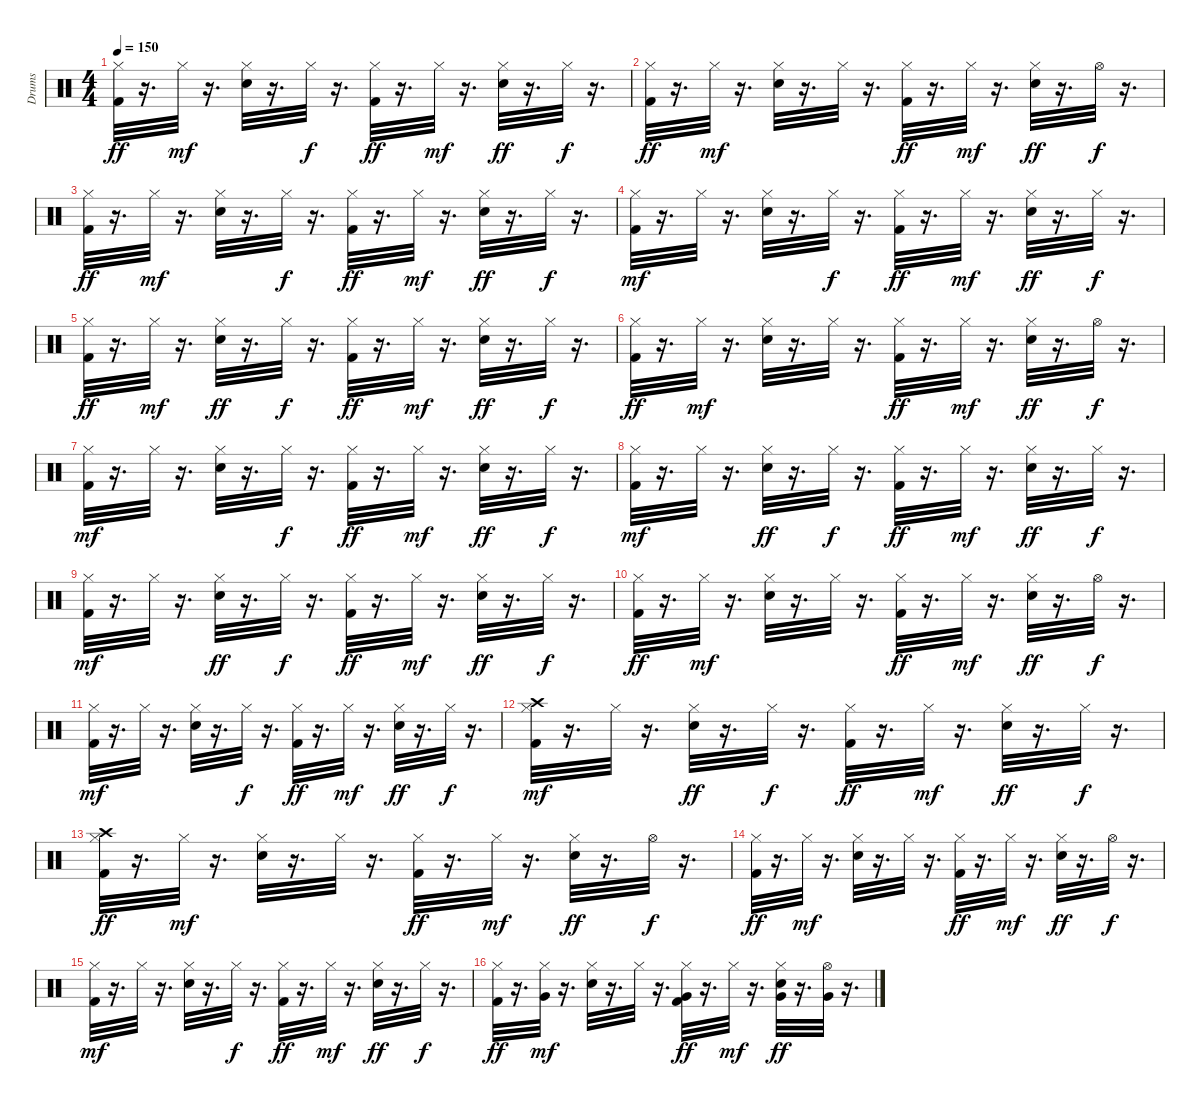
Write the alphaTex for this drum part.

\track ("Drums" "Drums") {instrument percussion}
\staff {score}
\articulation defaults
\ts (4 4)
\tempo 150
\clef neutral
\ks c
("Hi-Hat (closed)" "Kick (hit) 2").32{dy ff} r.16{d} "Hi-Hat (closed)".32{dy mf} r.16{d} ("Snare (hit) 2" "Hi-Hat (closed)").32 r.16{d} "Hi-Hat (closed)".32{dy f} r.16{d} ("Kick (hit) 2" "Hi-Hat (closed)").32{dy ff} r.16{d} "Hi-Hat (closed)".32{dy mf} r.16{d} ("Hi-Hat (closed)" "Snare (hit) 2").32{dy ff} r.16{d} "Hi-Hat (closed)".32{dy f} r.16{d} |
("Hi-Hat (closed)" "Kick (hit) 2").32{dy ff} r.16{d} "Hi-Hat (closed)".32{dy mf} r.16{d} ("Snare (hit) 2" "Hi-Hat (closed)").32 r.16{d} "Hi-Hat (closed)".32 r.16{d} ("Kick (hit) 2" "Hi-Hat (closed)").32{dy ff} r.16{d} "Hi-Hat (closed)".32{dy mf} r.16{d} ("Snare (hit) 2" "Hi-Hat (closed)").32{dy ff} r.16{d} "Hi-Hat (open)".32{dy f} r.16{d} |
("Hi-Hat (closed)" "Kick (hit) 2").32{dy ff} r.16{d} "Hi-Hat (closed)".32{dy mf} r.16{d} ("Snare (hit) 2" "Hi-Hat (closed)").32 r.16{d} "Hi-Hat (closed)".32{dy f} r.16{d} ("Hi-Hat (closed)" "Kick (hit) 2").32{dy ff} r.16{d} "Hi-Hat (closed)".32{dy mf} r.16{d} ("Snare (hit) 2" "Hi-Hat (closed)").32{dy ff} r.16{d} "Hi-Hat (closed)".32{dy f} r.16{d} |
("Kick (hit) 2" "Hi-Hat (closed)").32{dy mf} r.16{d} "Hi-Hat (closed)".32 r.16{d} ("Snare (hit) 2" "Hi-Hat (closed)").32 r.16{d} "Hi-Hat (closed)".32{dy f} r.16{d} ("Hi-Hat (closed)" "Kick (hit) 2").32{dy ff} r.16{d} "Hi-Hat (closed)".32{dy mf} r.16{d} ("Hi-Hat (closed)" "Snare (hit) 2").32{dy ff} r.16{d} "Hi-Hat (closed)".32{dy f} r.16{d} |
("Hi-Hat (closed)" "Kick (hit) 2").32{dy ff} r.16{d} "Hi-Hat (closed)".32{dy mf} r.16{d} ("Hi-Hat (closed)" "Snare (hit) 2").32{dy ff} r.16{d} "Hi-Hat (closed)".32{dy f} r.16{d} ("Kick (hit) 2" "Hi-Hat (closed)").32{dy ff} r.16{d} "Hi-Hat (closed)".32{dy mf} r.16{d} ("Snare (hit) 2" "Hi-Hat (closed)").32{dy ff} r.16{d} "Hi-Hat (closed)".32{dy f} r.16{d} |
("Kick (hit) 2" "Hi-Hat (closed)").32{dy ff} r.16{d} "Hi-Hat (closed)".32{dy mf} r.16{d} ("Snare (hit) 2" "Hi-Hat (closed)").32 r.16{d} "Hi-Hat (closed)".32 r.16{d} ("Kick (hit) 2" "Hi-Hat (closed)").32{dy ff} r.16{d} "Hi-Hat (closed)".32{dy mf} r.16{d} ("Hi-Hat (closed)" "Snare (hit) 2").32{dy ff} r.16{d} "Hi-Hat (open)".32{dy f} r.16{d} |
("Kick (hit) 2" "Hi-Hat (closed)").32{dy mf} r.16{d} "Hi-Hat (closed)".32 r.16{d} ("Snare (hit) 2" "Hi-Hat (closed)").32 r.16{d} "Hi-Hat (closed)".32{dy f} r.16{d} ("Kick (hit) 2" "Hi-Hat (closed)").32{dy ff} r.16{d} "Hi-Hat (closed)".32{dy mf} r.16{d} ("Snare (hit) 2" "Hi-Hat (closed)").32{dy ff} r.16{d} "Hi-Hat (closed)".32{dy f} r.16{d} |
("Kick (hit) 2" "Hi-Hat (closed)").32{dy mf} r.16{d} "Hi-Hat (closed)".32 r.16{d} ("Hi-Hat (closed)" "Snare (hit) 2").32{dy ff} r.16{d} "Hi-Hat (closed)".32{dy f} r.16{d} ("Kick (hit) 2" "Hi-Hat (closed)").32{dy ff} r.16{d} "Hi-Hat (closed)".32{dy mf} r.16{d} ("Snare (hit) 2" "Hi-Hat (closed)").32{dy ff} r.16{d} "Hi-Hat (closed)".32{dy f} r.16{d} |
("Kick (hit) 2" "Hi-Hat (closed)").32{dy mf} r.16{d} "Hi-Hat (closed)".32 r.16{d} ("Hi-Hat (closed)" "Snare (hit) 2").32{dy ff} r.16{d} "Hi-Hat (closed)".32{dy f} r.16{d} ("Kick (hit) 2" "Hi-Hat (closed)").32{dy ff} r.16{d} "Hi-Hat (closed)".32{dy mf} r.16{d} ("Snare (hit) 2" "Hi-Hat (closed)").32{dy ff} r.16{d} "Hi-Hat (closed)".32{dy f} r.16{d} |
("Kick (hit) 2" "Hi-Hat (closed)").32{dy ff} r.16{d} "Hi-Hat (closed)".32{dy mf} r.16{d} ("Snare (hit) 2" "Hi-Hat (closed)").32 r.16{d} "Hi-Hat (closed)".32 r.16{d} ("Kick (hit) 2" "Hi-Hat (closed)").32{dy ff} r.16{d} "Hi-Hat (closed)".32{dy mf} r.16{d} ("Snare (hit) 2" "Hi-Hat (closed)").32{dy ff} r.16{d} "Hi-Hat (open)".32{dy f} r.16{d} |
("Kick (hit) 2" "Hi-Hat (closed)").32{dy mf} r.16{d} "Hi-Hat (closed)".32 r.16{d} ("Snare (hit) 2" "Hi-Hat (closed)").32 r.16{d} "Hi-Hat (closed)".32{dy f} r.16{d} ("Kick (hit) 2" "Hi-Hat (closed)").32{dy ff} r.16{d} "Hi-Hat (closed)".32{dy mf} r.16{d} ("Snare (hit) 2" "Hi-Hat (closed)").32{dy ff} r.16{d} "Hi-Hat (closed)".32{dy f} r.16{d} |
("Kick (hit) 2" "Hi-Hat (closed)" "Crash high (hit)").32{dy mf} r.16{d} "Hi-Hat (closed)".32 r.16{d} ("Hi-Hat (closed)" "Snare (hit) 2").32{dy ff} r.16{d} "Hi-Hat (closed)".32{dy f} r.16{d} ("Hi-Hat (closed)" "Kick (hit) 2").32{dy ff} r.16{d} "Hi-Hat (closed)".32{dy mf} r.16{d} ("Hi-Hat (closed)" "Snare (hit) 2").32{dy ff} r.16{d} "Hi-Hat (closed)".32{dy f} r.16{d} |
("Hi-Hat (closed)" "Kick (hit) 2" "Crash high (hit)").32{dy ff} r.16{d} "Hi-Hat (closed)".32{dy mf} r.16{d} ("Snare (hit) 2" "Hi-Hat (closed)").32 r.16{d} "Hi-Hat (closed)".32 r.16{d} ("Hi-Hat (closed)" "Kick (hit) 2").32{dy ff} r.16{d} "Hi-Hat (closed)".32{dy mf} r.16{d} ("Hi-Hat (closed)" "Snare (hit) 2").32{dy ff} r.16{d} "Hi-Hat (open)".32{dy f} r.16{d} |
("Kick (hit) 2" "Hi-Hat (closed)").32{dy ff} r.16{d} "Hi-Hat (closed)".32{dy mf} r.16{d} ("Snare (hit) 2" "Hi-Hat (closed)").32 r.16{d} "Hi-Hat (closed)".32 r.16{d} ("Hi-Hat (closed)" "Kick (hit) 2").32{dy ff} r.16{d} "Hi-Hat (closed)".32{dy mf} r.16{d} ("Hi-Hat (closed)" "Snare (hit) 2").32{dy ff} r.16{d} "Hi-Hat (open)".32{dy f} r.16{d} |
("Kick (hit) 2" "Hi-Hat (closed)").32{dy mf} r.16{d} "Hi-Hat (closed)".32 r.16{d} ("Snare (hit) 2" "Hi-Hat (closed)").32 r.16{d} "Hi-Hat (closed)".32{dy f} r.16{d} ("Hi-Hat (closed)" "Kick (hit) 2").32{dy ff} r.16{d} "Hi-Hat (closed)".32{dy mf} r.16{d} ("Hi-Hat (closed)" "Snare (hit) 2").32{dy ff} r.16{d} "Hi-Hat (closed)".32{dy f} r.16{d} |
("Kick (hit) 2" "Hi-Hat (closed)").32{dy ff} r.16{d} ("Hi-Hat (closed)" "Very Low Tom (hit)").32{dy mf} r.16{d} ("Snare (hit) 2" "Hi-Hat (closed)").32 r.16{d} "Hi-Hat (closed)".32 r.16{d} ("Kick (hit) 2" "Hi-Hat (closed)" "Very Low Tom (hit)").32{dy ff} r.16{d} "Hi-Hat (closed)".32{dy mf} r.16{d} ("Hi-Hat (closed)" "Snare (hit) 2" "Very Low Tom (hit)").32{dy ff} r.16{d} ("Hi-Hat (open)" "Very Low Tom (hit)").32 r.16{d}
